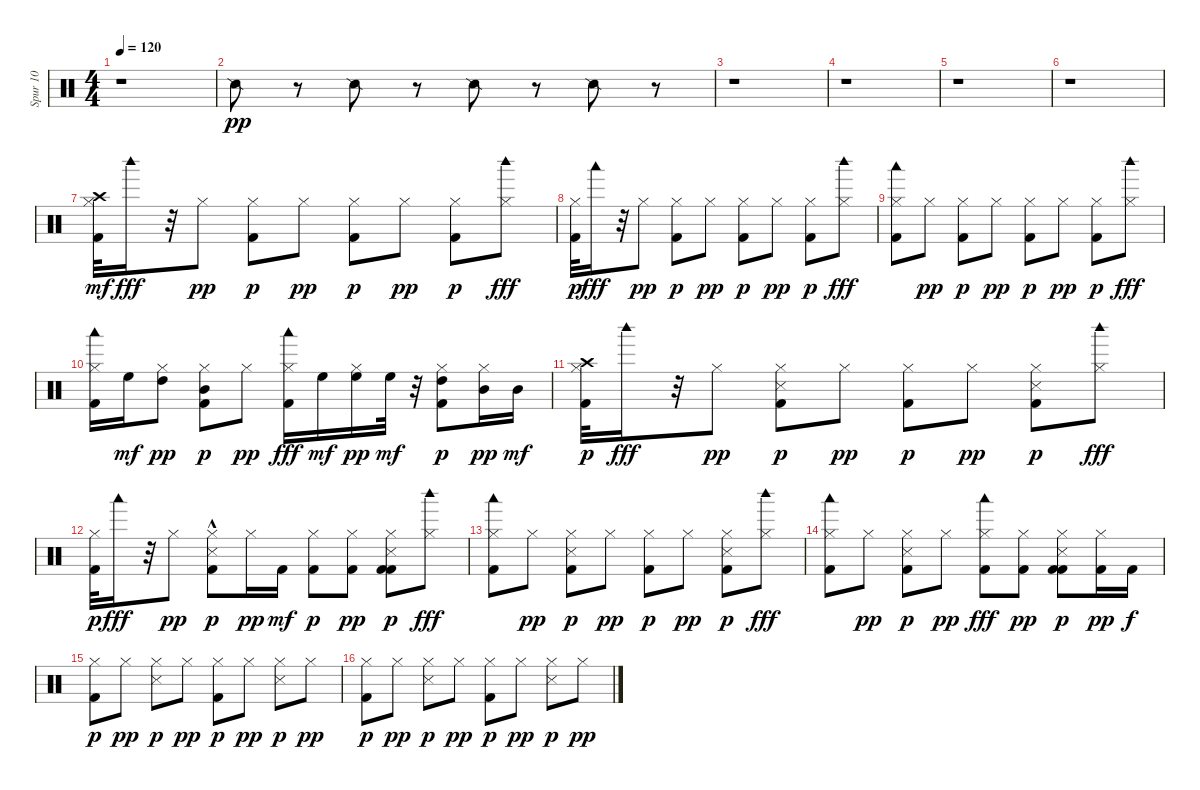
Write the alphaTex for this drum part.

\track ("Spur 10" "Spur 10") {instrument percussion}
\staff {score}
\articulation defaults
\ts (4 4)
\tempo 120
\clef neutral
\ks c
r.1{dy pp} |
"Snare (side stick) 2".8 r.8 "Snare (side stick) 2".8 r.8 "Snare (side stick) 2".8 r.8 "Snare (side stick) 2".8 r.8 |
r.1 |
r.1 |
r.1 |
r.1 |
("Kick (hit) 2" "Hi-Hat (closed)" "Crash high (hit)").32{dy mf} "Woodblock high (hit)".16{dy fff} r.32 "Hi-Hat (closed)".8{dy pp} ("Kick (hit) 2" "Hi-Hat (closed)").8{dy p} "Hi-Hat (closed)".8{dy pp} ("Kick (hit) 2" "Hi-Hat (closed)").8{dy p} "Hi-Hat (closed)".8{dy pp} ("Kick (hit) 2" "Hi-Hat (closed)").8{dy p} ("Hi-Hat (closed)" "Woodblock high (hit)").8{dy fff} |
("Kick (hit) 2" "Hi-Hat (closed)").32{dy p} "Woodblock low (hit)".16{dy fff} r.32 "Hi-Hat (closed)".8{dy pp} ("Kick (hit) 2" "Hi-Hat (closed)").8{dy p} "Hi-Hat (closed)".8{dy pp} ("Kick (hit) 2" "Hi-Hat (closed)").8{dy p} "Hi-Hat (closed)".8{dy pp} ("Kick (hit) 2" "Hi-Hat (closed)").8{dy p} ("Hi-Hat (closed)" "Woodblock high (hit)").8{dy fff} |
("Kick (hit) 2" "Hi-Hat (closed)" "Woodblock low (hit)").8 "Hi-Hat (closed)".8{dy pp} ("Kick (hit) 2" "Hi-Hat (closed)").8{dy p} "Hi-Hat (closed)".8{dy pp} ("Kick (hit) 2" "Hi-Hat (closed)").8{dy p} "Hi-Hat (closed)".8{dy pp} ("Kick (hit) 2" "Hi-Hat (closed)").8{dy p} ("Hi-Hat (closed)" "Woodblock high (hit)").8{dy fff} |
("Kick (hit) 2" "Hi-Hat (closed)" "Woodblock low (hit)").16 "High Floor Tom (hit)".16{dy mf} ("Hi-Hat (closed)" "High Tom (hit)").8{dy pp} ("Kick (hit) 2" "Hi-Hat (closed)" "Mid Tom (hit)").8{dy p} "Hi-Hat (closed)".8{dy pp} ("Kick (hit) 2" "Hi-Hat (closed)" "Woodblock low (hit)").16{dy fff} "High Floor Tom (hit)".16{dy mf} ("Hi-Hat (closed)" "High Floor Tom (hit)").16{dy pp} "High Floor Tom (hit)".32{dy mf} r.32 ("Kick (hit) 2" "Hi-Hat (closed)" "High Tom (hit)").8{dy p} ("Hi-Hat (closed)" "Mid Tom (hit)").16{dy pp} "Mid Tom (hit)".16{dy mf} |
("Kick (hit) 2" "Hi-Hat (closed)" "Crash high (hit)").32{dy p} "Woodblock high (hit)".16{dy fff} r.32 "Hi-Hat (closed)".8{dy pp} ("Kick (hit) 2" "Snare (side stick) 3" "Hi-Hat (closed)").8{dy p} "Hi-Hat (closed)".8{dy pp} ("Kick (hit) 2" "Hi-Hat (closed)").8{dy p} "Hi-Hat (closed)".8{dy pp} ("Kick (hit) 2" "Snare (side stick) 3" "Hi-Hat (closed)").8{dy p} ("Hi-Hat (closed)" "Woodblock high (hit)").8{dy fff} |
("Kick (hit) 2" "Hi-Hat (closed)").32{dy p} "Woodblock low (hit)".16{dy fff} r.32 "Hi-Hat (closed)".8{dy pp} ("Kick (hit) 2"{hac} "Snare (side stick) 3" "Hi-Hat (closed)").8{dy p} "Hi-Hat (closed)".16{dy pp} "Kick (hit) 2".16{dy mf} ("Kick (hit) 2" "Hi-Hat (closed)").8{dy p} ("Kick (hit) 2" "Hi-Hat (closed)").8{dy pp} ("Kick (hit) 2" "Kick (hit) 2" "Snare (side stick) 3" "Hi-Hat (closed)").8{dy p} ("Hi-Hat (closed)" "Woodblock high (hit)").8{dy fff} |
("Kick (hit) 2" "Hi-Hat (closed)" "Woodblock low (hit)").8 "Hi-Hat (closed)".8{dy pp} ("Kick (hit) 2" "Snare (side stick) 3" "Hi-Hat (closed)").8{dy p} "Hi-Hat (closed)".8{dy pp} ("Kick (hit) 2" "Hi-Hat (closed)").8{dy p} "Hi-Hat (closed)".8{dy pp} ("Kick (hit) 2" "Snare (side stick) 3" "Hi-Hat (closed)").8{dy p} ("Hi-Hat (closed)" "Woodblock high (hit)").8{dy fff} |
("Kick (hit) 2" "Hi-Hat (closed)" "Woodblock low (hit)").8 "Hi-Hat (closed)".8{dy pp} ("Kick (hit) 2" "Snare (side stick) 3" "Hi-Hat (closed)").8{dy p} "Hi-Hat (closed)".8{dy pp} ("Kick (hit) 2" "Hi-Hat (closed)" "Woodblock low (hit)").8{dy fff} ("Kick (hit) 2" "Hi-Hat (closed)").8{dy pp} ("Kick (hit) 2" "Kick (hit) 2" "Snare (side stick) 3" "Hi-Hat (closed)").8{dy p} ("Kick (hit) 2" "Hi-Hat (closed)").16{dy pp} "Kick (hit) 2".16{dy f} |
("Kick (hit) 2" "Hi-Hat (closed)").8{dy p} "Hi-Hat (closed)".8{dy pp} ("Snare (side stick) 3" "Hi-Hat (closed)").8{dy p} "Hi-Hat (closed)".8{dy pp} ("Kick (hit) 2" "Hi-Hat (closed)").8{dy p} "Hi-Hat (closed)".8{dy pp} ("Snare (side stick) 3" "Hi-Hat (closed)").8{dy p} "Hi-Hat (closed)".8{dy pp} |
("Kick (hit) 2" "Hi-Hat (closed)").8{dy p} "Hi-Hat (closed)".8{dy pp} ("Snare (side stick) 3" "Hi-Hat (closed)").8{dy p} "Hi-Hat (closed)".8{dy pp} ("Kick (hit) 2" "Hi-Hat (closed)").8{dy p} "Hi-Hat (closed)".8{dy pp} ("Snare (side stick) 3" "Hi-Hat (closed)").8{dy p} "Hi-Hat (closed)".8{dy pp}
